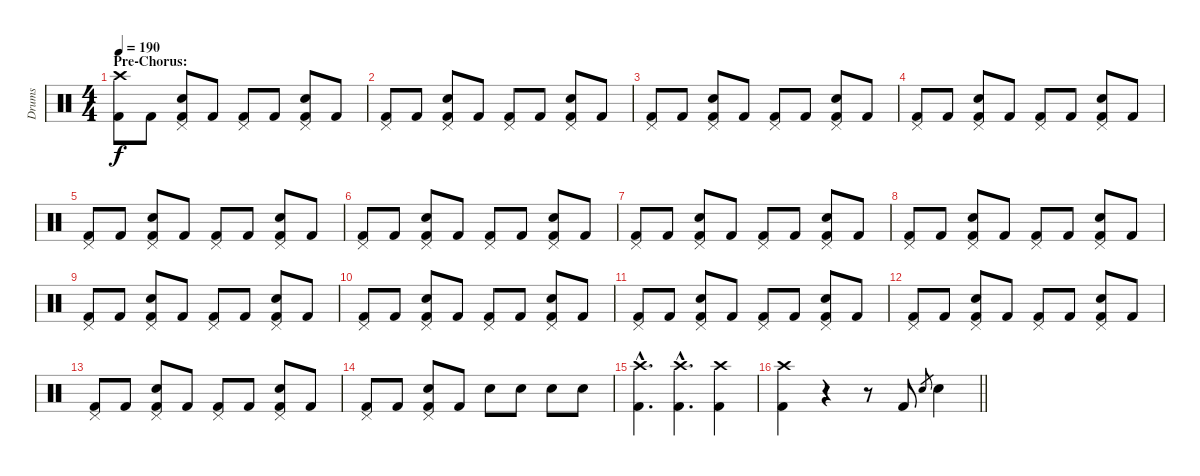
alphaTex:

\track ("Drums" "Drums") {instrument percussion}
\staff {score}
\articulation defaults
\ts (4 4)
\section ("" "Pre-Chorus:")
\tempo 190
\clef neutral
\ks c
("Crash high (hit)" "Kick (hit) 2").8{dy f} "Kick (hit) 2".8 ("Pedal Hi-Hat (hit)" "Electric Snare (hit)" "Kick (hit) 2").8 "Kick (hit) 2".8 ("Pedal Hi-Hat (hit)" "Kick (hit) 2").8 "Kick (hit) 2".8 ("Pedal Hi-Hat (hit)" "Electric Snare (hit)" "Kick (hit) 2").8 "Kick (hit) 2".8 |
("Pedal Hi-Hat (hit)" "Kick (hit) 2").8 "Kick (hit) 2".8 ("Pedal Hi-Hat (hit)" "Electric Snare (hit)" "Kick (hit) 2").8 "Kick (hit) 2".8 ("Pedal Hi-Hat (hit)" "Kick (hit) 2").8 "Kick (hit) 2".8 ("Pedal Hi-Hat (hit)" "Electric Snare (hit)" "Kick (hit) 2").8 "Kick (hit) 2".8 |
("Pedal Hi-Hat (hit)" "Kick (hit) 2").8 "Kick (hit) 2".8 ("Pedal Hi-Hat (hit)" "Electric Snare (hit)" "Kick (hit) 2").8 "Kick (hit) 2".8 ("Pedal Hi-Hat (hit)" "Kick (hit) 2").8 "Kick (hit) 2".8 ("Pedal Hi-Hat (hit)" "Electric Snare (hit)" "Kick (hit) 2").8 "Kick (hit) 2".8 |
("Pedal Hi-Hat (hit)" "Kick (hit) 2").8 "Kick (hit) 2".8 ("Pedal Hi-Hat (hit)" "Electric Snare (hit)" "Kick (hit) 2").8 "Kick (hit) 2".8 ("Pedal Hi-Hat (hit)" "Kick (hit) 2").8 "Kick (hit) 2".8 ("Pedal Hi-Hat (hit)" "Electric Snare (hit)" "Kick (hit) 2").8 "Kick (hit) 2".8 |
("Pedal Hi-Hat (hit)" "Kick (hit) 2").8 "Kick (hit) 2".8 ("Pedal Hi-Hat (hit)" "Electric Snare (hit)" "Kick (hit) 2").8 "Kick (hit) 2".8 ("Pedal Hi-Hat (hit)" "Kick (hit) 2").8 "Kick (hit) 2".8 ("Pedal Hi-Hat (hit)" "Electric Snare (hit)" "Kick (hit) 2").8 "Kick (hit) 2".8 |
("Pedal Hi-Hat (hit)" "Kick (hit) 2").8 "Kick (hit) 2".8 ("Pedal Hi-Hat (hit)" "Electric Snare (hit)" "Kick (hit) 2").8 "Kick (hit) 2".8 ("Pedal Hi-Hat (hit)" "Kick (hit) 2").8 "Kick (hit) 2".8 ("Pedal Hi-Hat (hit)" "Electric Snare (hit)" "Kick (hit) 2").8 "Kick (hit) 2".8 |
("Pedal Hi-Hat (hit)" "Kick (hit) 2").8 "Kick (hit) 2".8 ("Pedal Hi-Hat (hit)" "Electric Snare (hit)" "Kick (hit) 2").8 "Kick (hit) 2".8 ("Pedal Hi-Hat (hit)" "Kick (hit) 2").8 "Kick (hit) 2".8 ("Pedal Hi-Hat (hit)" "Electric Snare (hit)" "Kick (hit) 2").8 "Kick (hit) 2".8 |
("Pedal Hi-Hat (hit)" "Kick (hit) 2").8 "Kick (hit) 2".8 ("Pedal Hi-Hat (hit)" "Electric Snare (hit)" "Kick (hit) 2").8 "Kick (hit) 2".8 ("Pedal Hi-Hat (hit)" "Kick (hit) 2").8 "Kick (hit) 2".8 ("Pedal Hi-Hat (hit)" "Electric Snare (hit)" "Kick (hit) 2").8 "Kick (hit) 2".8 |
("Pedal Hi-Hat (hit)" "Kick (hit) 2").8 "Kick (hit) 2".8 ("Pedal Hi-Hat (hit)" "Electric Snare (hit)" "Kick (hit) 2").8 "Kick (hit) 2".8 ("Pedal Hi-Hat (hit)" "Kick (hit) 2").8 "Kick (hit) 2".8 ("Pedal Hi-Hat (hit)" "Electric Snare (hit)" "Kick (hit) 2").8 "Kick (hit) 2".8 |
("Pedal Hi-Hat (hit)" "Kick (hit) 2").8 "Kick (hit) 2".8 ("Pedal Hi-Hat (hit)" "Electric Snare (hit)" "Kick (hit) 2").8 "Kick (hit) 2".8 ("Pedal Hi-Hat (hit)" "Kick (hit) 2").8 "Kick (hit) 2".8 ("Pedal Hi-Hat (hit)" "Electric Snare (hit)" "Kick (hit) 2").8 "Kick (hit) 2".8 |
("Pedal Hi-Hat (hit)" "Kick (hit) 2").8 "Kick (hit) 2".8 ("Pedal Hi-Hat (hit)" "Electric Snare (hit)" "Kick (hit) 2").8 "Kick (hit) 2".8 ("Pedal Hi-Hat (hit)" "Kick (hit) 2").8 "Kick (hit) 2".8 ("Pedal Hi-Hat (hit)" "Electric Snare (hit)" "Kick (hit) 2").8 "Kick (hit) 2".8 |
("Pedal Hi-Hat (hit)" "Kick (hit) 2").8 "Kick (hit) 2".8 ("Pedal Hi-Hat (hit)" "Electric Snare (hit)" "Kick (hit) 2").8 "Kick (hit) 2".8 ("Pedal Hi-Hat (hit)" "Kick (hit) 2").8 "Kick (hit) 2".8 ("Pedal Hi-Hat (hit)" "Electric Snare (hit)" "Kick (hit) 2").8 "Kick (hit) 2".8 |
("Pedal Hi-Hat (hit)" "Kick (hit) 2").8 "Kick (hit) 2".8 ("Pedal Hi-Hat (hit)" "Electric Snare (hit)" "Kick (hit) 2").8 "Kick (hit) 2".8 ("Pedal Hi-Hat (hit)" "Kick (hit) 2").8 "Kick (hit) 2".8 ("Pedal Hi-Hat (hit)" "Electric Snare (hit)" "Kick (hit) 2").8 "Kick (hit) 2".8 |
("Pedal Hi-Hat (hit)" "Kick (hit) 2").8 "Kick (hit) 2".8 ("Pedal Hi-Hat (hit)" "Electric Snare (hit)" "Kick (hit) 2").8 "Kick (hit) 2".8 "Electric Snare (hit)".8 "Electric Snare (hit)".8 "Electric Snare (hit)".8 "Electric Snare (hit)".8 |
("Crash high (hit)"{hac} "Kick (hit) 2"{hac}).4{d} ("Crash high (hit)"{hac} "Kick (hit) 2"{hac}).4{d} ("Crash high (hit)" "Kick (hit) 2").4 |
\barLineRight lightlight
("Crash high (hit)" "Kick (hit) 2").4 r.4 r.8 "Kick (hit) 2".8 "Electric Snare (hit)".8{gr} "Electric Snare (hit)".4
